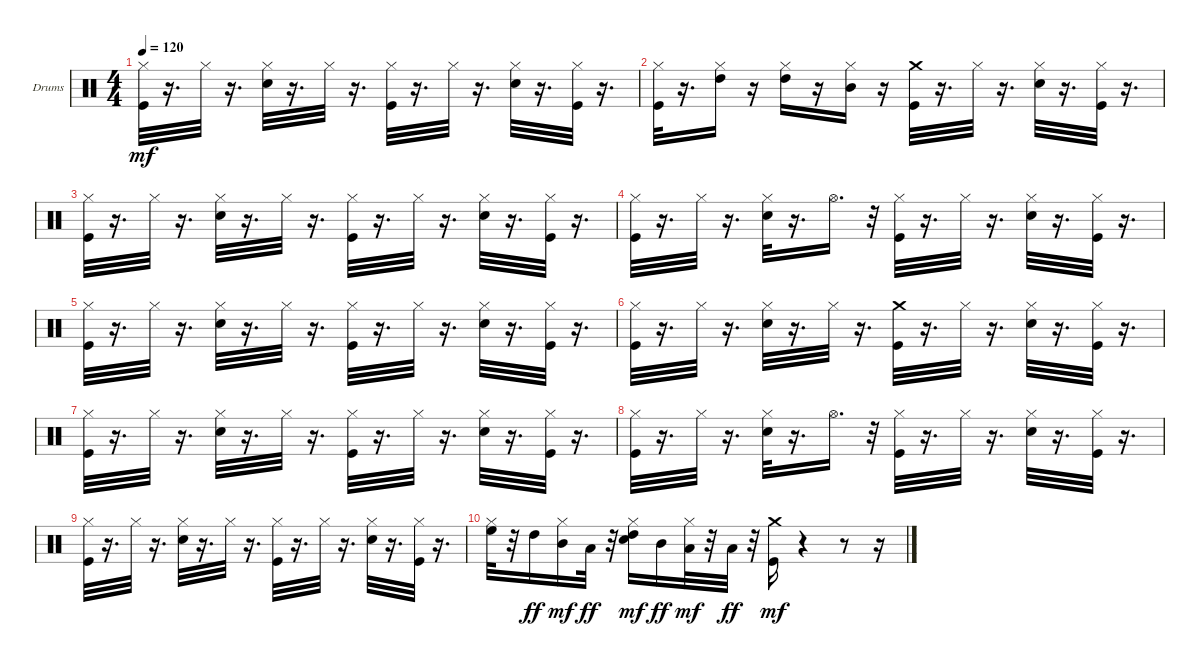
\bracketExtendMode groupsimilarinstruments
\firstSystemTrackNameOrientation horizontal
\otherSystemsTrackNameOrientation horizontal
\track ("Ударные" "Drums") {instrument percussion}
\staff {score}
\articulation defaults
\ts (4 4)
\tempo 120
\clef neutral
\ks c
("Hi-Hat (closed)" "Kick (hit)").32{dy mf} r.16{d} "Hi-Hat (closed)".32 r.16{d} ("Hi-Hat (closed)" "Snare (hit) 2").32 r.16{d} "Hi-Hat (closed)".32 r.16{d} ("Hi-Hat (closed)" "Kick (hit)").32 r.16{d} "Hi-Hat (closed)".32 r.16{d} ("Hi-Hat (closed)" "Snare (hit) 2").32 r.16{d} ("Hi-Hat (closed)" "Kick (hit)").32 r.16{d} |
("Hi-Hat (closed)" "Kick (hit)").32 r.16{d} ("Hi-Hat (closed)" "High Tom (hit)").16 r.16 ("Hi-Hat (closed)" "High Tom (hit)").16 r.16 ("Hi-Hat (closed)" "Mid Tom (hit)").16 r.16 ("Crash medium (hit)" "Kick (hit)").32 r.16{d} "Hi-Hat (closed)".32 r.16{d} ("Hi-Hat (closed)" "Snare (hit) 2").32 r.16{d} ("Hi-Hat (closed)" "Kick (hit)").32 r.16{d} |
("Hi-Hat (closed)" "Kick (hit)").32 r.16{d} "Hi-Hat (closed)".32 r.16{d} ("Hi-Hat (closed)" "Snare (hit) 2").32 r.16{d} "Hi-Hat (closed)".32 r.16{d} ("Hi-Hat (closed)" "Kick (hit)").32 r.16{d} "Hi-Hat (closed)".32 r.16{d} ("Hi-Hat (closed)" "Snare (hit) 2").32 r.16{d} ("Hi-Hat (closed)" "Kick (hit)").32 r.16{d} |
("Hi-Hat (closed)" "Kick (hit)").32 r.16{d} "Hi-Hat (closed)".32 r.16{d} ("Hi-Hat (closed)" "Snare (hit) 2").32 r.16{d} "Hi-Hat (open)".16{d} r.32 ("Hi-Hat (closed)" "Kick (hit)").32 r.16{d} "Hi-Hat (closed)".32 r.16{d} ("Hi-Hat (closed)" "Snare (hit) 2").32 r.16{d} ("Hi-Hat (closed)" "Kick (hit)").32 r.16{d} |
("Hi-Hat (closed)" "Kick (hit)").32 r.16{d} "Hi-Hat (closed)".32 r.16{d} ("Hi-Hat (closed)" "Snare (hit) 2").32 r.16{d} "Hi-Hat (closed)".32 r.16{d} ("Hi-Hat (closed)" "Kick (hit)").32 r.16{d} "Hi-Hat (closed)".32 r.16{d} ("Hi-Hat (closed)" "Snare (hit) 2").32 r.16{d} ("Hi-Hat (closed)" "Kick (hit)").32 r.16{d} |
("Hi-Hat (closed)" "Kick (hit)").32 r.16{d} "Hi-Hat (closed)".32 r.16{d} ("Hi-Hat (closed)" "Snare (hit) 2").32 r.16{d} "Hi-Hat (closed)".32 r.16{d} ("Crash medium (hit)" "Kick (hit)").32 r.16{d} "Hi-Hat (closed)".32 r.16{d} ("Hi-Hat (closed)" "Snare (hit) 2").32 r.16{d} ("Hi-Hat (closed)" "Kick (hit)").32 r.16{d} |
("Hi-Hat (closed)" "Kick (hit)").32 r.16{d} "Hi-Hat (closed)".32 r.16{d} ("Hi-Hat (closed)" "Snare (hit) 2").32 r.16{d} "Hi-Hat (closed)".32 r.16{d} ("Hi-Hat (closed)" "Kick (hit)").32 r.16{d} "Hi-Hat (closed)".32 r.16{d} ("Hi-Hat (closed)" "Snare (hit) 2").32 r.16{d} ("Hi-Hat (closed)" "Kick (hit)").32 r.16{d} |
("Hi-Hat (closed)" "Kick (hit)").32 r.16{d} "Hi-Hat (closed)".32 r.16{d} ("Hi-Hat (closed)" "Snare (hit) 2").32 r.16{d} "Hi-Hat (open)".16{d} r.32 ("Hi-Hat (closed)" "Kick (hit)").32 r.16{d} "Hi-Hat (closed)".32 r.16{d} ("Hi-Hat (closed)" "Snare (hit) 2").32 r.16{d} ("Hi-Hat (closed)" "Kick (hit)").32 r.16{d} |
("Hi-Hat (closed)" "Kick (hit)").32 r.16{d} "Hi-Hat (closed)".32 r.16{d} ("Hi-Hat (closed)" "Snare (hit) 2").32 r.16{d} "Hi-Hat (closed)".32 r.16{d} ("Hi-Hat (closed)" "Kick (hit)").32 r.16{d} "Hi-Hat (closed)".32 r.16{d} ("Hi-Hat (closed)" "Snare (hit) 2").32 r.16{d} ("Hi-Hat (closed)" "Kick (hit)").32 r.16{d} |
("Hi-Hat (closed)" "High Floor Tom (hit)").32 r.32 "High Tom (hit)".16{dy ff} ("Hi-Hat (closed)" "Mid Tom (hit)").16{dy mf} "Low Tom (hit)".32{dy ff} r.32 ("Hi-Hat (closed)" "High Tom (hit)" "Snare (hit) 2").16{dy mf} "Mid Tom (hit)".16{dy ff} ("Hi-Hat (closed)" "Low Tom (hit)").32{dy mf} r.32 "Low Tom (hit)".32{dy ff} r.32 ("Crash medium (hit)" "Kick (hit)").16{dy mf} r.4 r.8 r.16
